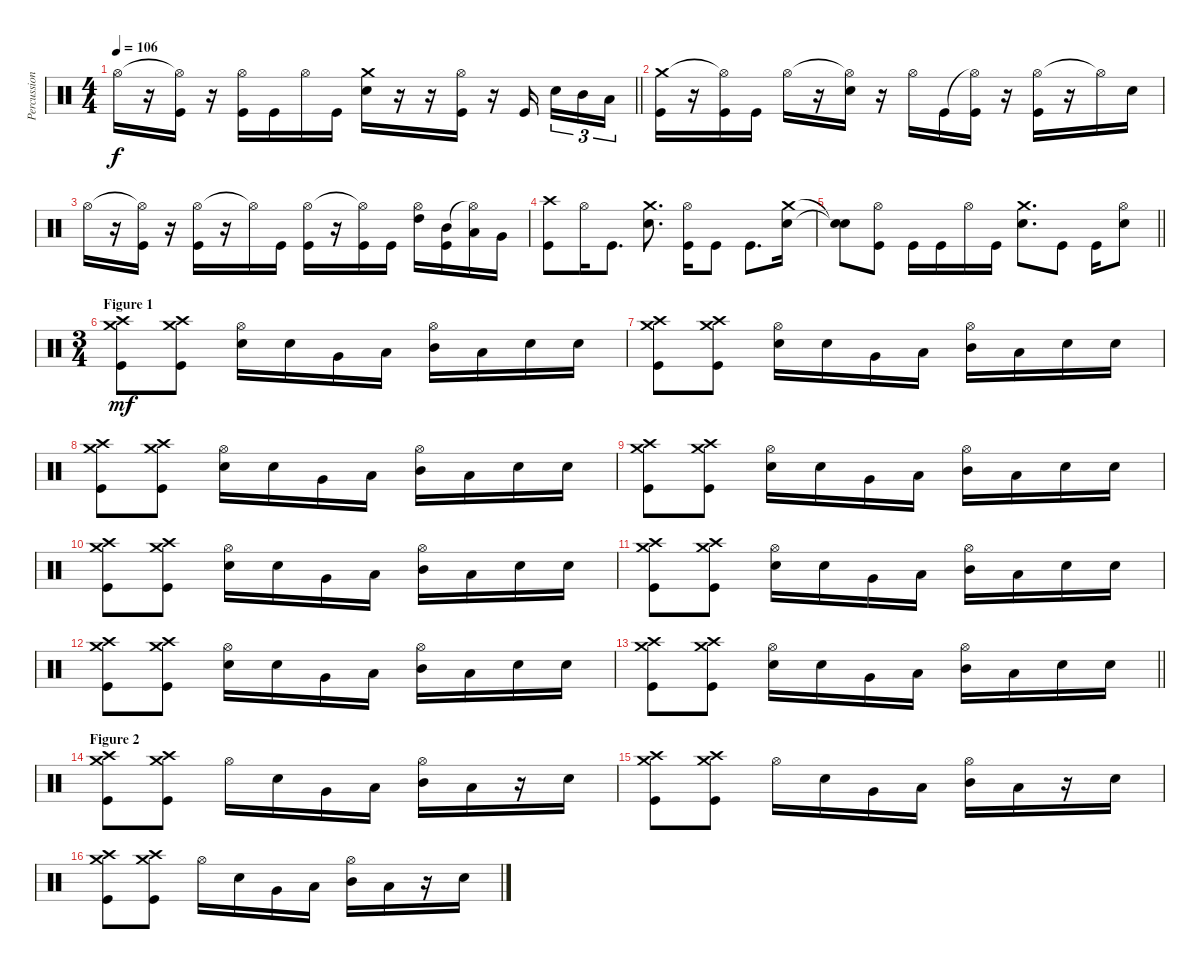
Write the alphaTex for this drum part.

\track ("Percussion" "Percussion") {instrument percussion}
\staff {score}
\articulation defaults
\ts (4 4)
\tempo 106
\clef neutral
\barLineRight lightlight
\ks c "Hi-Hat (open)".16{dy f}
r.16 ("Hi-Hat (open)"{t} "Kick (hit)").16 r.16 ("Hi-Hat (open)" "Kick (hit)").16 "Kick (hit)".16 "Hi-Hat (open)".16 "Kick (hit)".16 ("Crash medium (hit)" "Snare (hit) 2").16 r.16 r.16 ("Hi-Hat (open)" "Kick (hit)").16 r.16 "Kick (hit)".16{beam splitsecondary} "Snare (hit) 2".16{tu (3 2)} "Mid Tom (hit)".16{tu (3 2)} "Low Tom (hit)".16{tu (3 2)} |
("Crash medium (hit)" "Kick (hit)").16 r.16 ("Hi-Hat (open)"{t} "Kick (hit)").16 "Kick (hit)".16 "Hi-Hat (open)".16 r.16 ("Hi-Hat (open)"{t} "Snare (hit) 2").16 r.16 "Hi-Hat (open)".16 "Kick (hit)".16 ("Hi-Hat (open)"{t} "Kick (hit)").16 r.16 ("Hi-Hat (open)" "Kick (hit)").16 r.16 "Hi-Hat (open)"{t}.16 "Snare (hit) 2".16 |
"Hi-Hat (open)".16 r.16 ("Hi-Hat (open)"{t} "Kick (hit)").16 r.16 ("Hi-Hat (open)" "Kick (hit)").16 r.16 "Hi-Hat (open)"{t}.16 "Kick (hit)".16 ("Hi-Hat (open)" "Kick (hit)").16 r.16 ("Hi-Hat (open)"{t} "Kick (hit)").16 "Kick (hit)".16 ("Hi-Hat (open)" "High Tom (hit)").16 ("Mid Tom (hit)" "Kick (hit)").16 ("Hi-Hat (open)"{t} "Low Tom (hit)").16 "Very Low Tom (hit)".16 |
("Crash high (hit)" "Kick (hit)").8 "Hi-Hat (open)".16 "Kick (hit)".8{d} ("Crash medium (hit)" "Snare (hit) 2").8{d} ("Hi-Hat (open)" "Kick (hit)").16 "Kick (hit)".8 "Kick (hit)".8{d} ("Crash medium (hit)" "Snare (hit) 2").16 |
\barLineRight lightlight
("Snare (hit)"{t} "Snare (hit)"{t}).8 ("Hi-Hat (open)" "Kick (hit)").8 "Kick (hit)".16 "Kick (hit)".16 "Hi-Hat (open)".16 "Kick (hit)".16 ("Crash medium (hit)" "Snare (hit) 2").8{d} "Kick (hit)".8 "Kick (hit)".16 ("Hi-Hat (open)" "Snare (hit) 2").8 |
\ts (3 4)
\section ("" "Figure 1")
("Crash high (hit)" "Crash medium (hit)" "Kick (hit)").8{dy mf} ("Crash high (hit)" "Crash medium (hit)" "Kick (hit)").8 ("Hi-Hat (open)" "Snare (hit) 2").16 "Snare (hit) 2".16 "Very Low Tom (hit)".16 "Low Tom (hit)".16 ("Hi-Hat (open)" "Mid Tom (hit)").16 "Low Tom (hit)".16 "Snare (hit) 2".16 "Snare (hit) 2".16 |
("Crash high (hit)" "Crash medium (hit)" "Kick (hit)").8 ("Crash high (hit)" "Crash medium (hit)" "Kick (hit)").8 ("Hi-Hat (open)" "Snare (hit) 2").16 "Snare (hit) 2".16 "Very Low Tom (hit)".16 "Low Tom (hit)".16 ("Hi-Hat (open)" "Mid Tom (hit)").16 "Low Tom (hit)".16 "Snare (hit) 2".16 "Snare (hit) 2".16 |
("Crash high (hit)" "Crash medium (hit)" "Kick (hit)").8 ("Crash high (hit)" "Crash medium (hit)" "Kick (hit)").8 ("Hi-Hat (open)" "Snare (hit) 2").16 "Snare (hit) 2".16 "Very Low Tom (hit)".16 "Low Tom (hit)".16 ("Hi-Hat (open)" "Mid Tom (hit)").16 "Low Tom (hit)".16 "Snare (hit) 2".16 "Snare (hit) 2".16 |
("Crash high (hit)" "Crash medium (hit)" "Kick (hit)").8 ("Crash high (hit)" "Crash medium (hit)" "Kick (hit)").8 ("Hi-Hat (open)" "Snare (hit) 2").16 "Snare (hit) 2".16 "Very Low Tom (hit)".16 "Low Tom (hit)".16 ("Hi-Hat (open)" "Mid Tom (hit)").16 "Low Tom (hit)".16 "Snare (hit) 2".16 "Snare (hit) 2".16 |
("Crash high (hit)" "Crash medium (hit)" "Kick (hit)").8 ("Crash high (hit)" "Crash medium (hit)" "Kick (hit)").8 ("Hi-Hat (open)" "Snare (hit) 2").16 "Snare (hit) 2".16 "Very Low Tom (hit)".16 "Low Tom (hit)".16 ("Hi-Hat (open)" "Mid Tom (hit)").16 "Low Tom (hit)".16 "Snare (hit) 2".16 "Snare (hit) 2".16 |
("Crash high (hit)" "Crash medium (hit)" "Kick (hit)").8 ("Crash high (hit)" "Crash medium (hit)" "Kick (hit)").8 ("Hi-Hat (open)" "Snare (hit) 2").16 "Snare (hit) 2".16 "Very Low Tom (hit)".16 "Low Tom (hit)".16 ("Hi-Hat (open)" "Mid Tom (hit)").16 "Low Tom (hit)".16 "Snare (hit) 2".16 "Snare (hit) 2".16 |
("Crash high (hit)" "Crash medium (hit)" "Kick (hit)").8 ("Crash high (hit)" "Crash medium (hit)" "Kick (hit)").8 ("Hi-Hat (open)" "Snare (hit) 2").16 "Snare (hit) 2".16 "Very Low Tom (hit)".16 "Low Tom (hit)".16 ("Hi-Hat (open)" "Mid Tom (hit)").16 "Low Tom (hit)".16 "Snare (hit) 2".16 "Snare (hit) 2".16 |
\barLineRight lightlight
("Crash high (hit)" "Crash medium (hit)" "Kick (hit)").8 ("Crash high (hit)" "Crash medium (hit)" "Kick (hit)").8 ("Hi-Hat (open)" "Snare (hit) 2").16 "Snare (hit) 2".16 "Very Low Tom (hit)".16 "Low Tom (hit)".16 ("Hi-Hat (open)" "Mid Tom (hit)").16 "Low Tom (hit)".16 "Snare (hit) 2".16 "Snare (hit) 2".16 |
\section ("" "Figure 2")
("Crash high (hit)" "Crash medium (hit)" "Kick (hit)").8 ("Crash high (hit)" "Crash medium (hit)" "Kick (hit)").8 "Hi-Hat (open)".16 "Snare (hit) 2".16 "Very Low Tom (hit)".16 "Low Tom (hit)".16 ("Hi-Hat (open)" "Mid Tom (hit)").16 "Low Tom (hit)".16 r.16 "Snare (hit) 2".16 |
("Crash high (hit)" "Crash medium (hit)" "Kick (hit)").8 ("Crash high (hit)" "Crash medium (hit)" "Kick (hit)").8 "Hi-Hat (open)".16 "Snare (hit) 2".16 "Very Low Tom (hit)".16 "Low Tom (hit)".16 ("Hi-Hat (open)" "Mid Tom (hit)").16 "Low Tom (hit)".16 r.16 "Snare (hit) 2".16 |
("Crash high (hit)" "Crash medium (hit)" "Kick (hit)").8 ("Crash high (hit)" "Crash medium (hit)" "Kick (hit)").8 "Hi-Hat (open)".16 "Snare (hit) 2".16 "Very Low Tom (hit)".16 "Low Tom (hit)".16 ("Hi-Hat (open)" "Mid Tom (hit)").16 "Low Tom (hit)".16 r.16 "Snare (hit) 2".16
